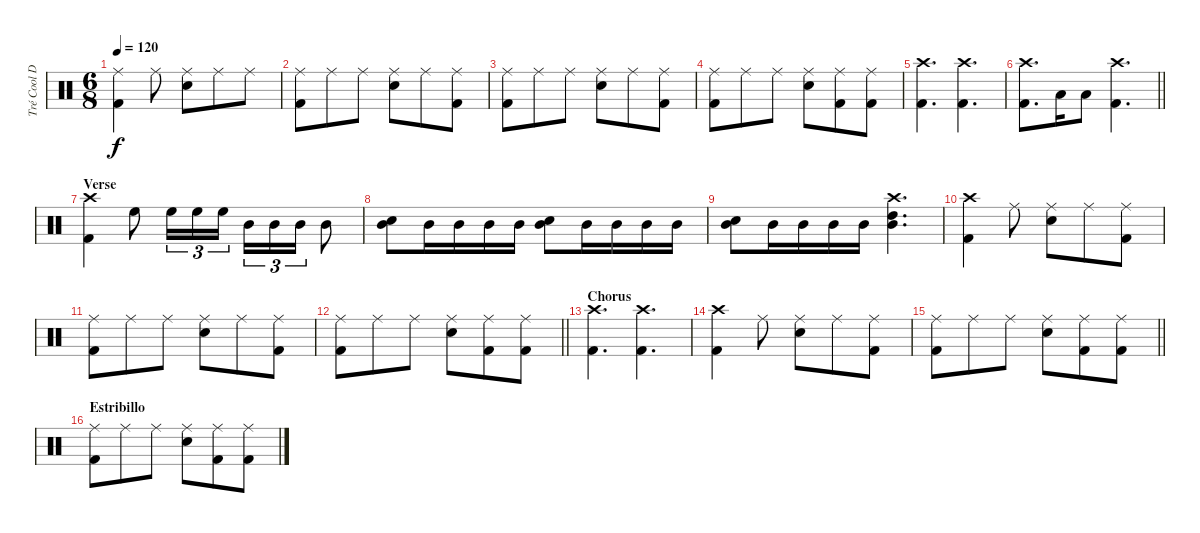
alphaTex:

\track ("Tré Cool Drums" "Tré Cool D") {instrument percussion}
\staff {score}
\articulation defaults
\ts (6 8)
\tempo 120
\clef neutral
\ks c
("Ride (middle)" "Kick (hit) 2").4{dy f} "Ride (middle)".8 ("Ride (middle)" "Snare (hit) 2").8 "Ride (middle)".8 "Ride (middle)".8 |
("Ride (middle)" "Kick (hit) 2").8 "Ride (middle)".8 "Ride (middle)".8 ("Ride (middle)" "Snare (hit) 2").8 "Ride (middle)".8 ("Ride (middle)" "Kick (hit) 2").8 |
("Ride (middle)" "Kick (hit) 2").8 "Ride (middle)".8 "Ride (middle)".8 ("Ride (middle)" "Snare (hit) 2").8 "Ride (middle)".8 ("Ride (middle)" "Kick (hit) 2").8 |
("Ride (middle)" "Kick (hit) 2").8 "Ride (middle)".8 "Ride (middle)".8 ("Ride (middle)" "Snare (hit) 2").8 ("Ride (middle)" "Kick (hit) 2").8 ("Ride (middle)" "Kick (hit) 2").8 |
("Crash high (hit)" "Kick (hit) 2").4{d} ("Crash high (hit)" "Kick (hit) 2").4{d} |
\barLineRight lightlight
("Crash high (hit)" "Kick (hit) 2").8{d} "Low Floor Tom (hit)".16 "Low Floor Tom (hit)".8 ("Crash high (hit)" "Kick (hit) 2").4{d} |
\section ("" "Verse")
("Crash high (hit)" "Kick (hit) 2").4 "High Floor Tom (hit)".8 "High Floor Tom (hit)".16{tu (3 2)} "High Floor Tom (hit)".16{tu (3 2)} "High Floor Tom (hit)".16{tu (3 2) beam splitsecondary} "Mid Tom (hit)".16{tu (3 2)} "Mid Tom (hit)".16{tu (3 2)} "Mid Tom (hit)".16{tu (3 2)} "Mid Tom (hit)".8 |
("Snare (hit) 2" "Mid Tom (hit)").8 "Mid Tom (hit)".16 "Mid Tom (hit)".16 "Mid Tom (hit)".16 "Mid Tom (hit)".16 ("Snare (hit) 2" "Mid Tom (hit)").8 "Mid Tom (hit)".16 "Mid Tom (hit)".16 "Mid Tom (hit)".16 "Mid Tom (hit)".16 |
("Snare (hit) 2" "Mid Tom (hit)").8 "Mid Tom (hit)".16 "Mid Tom (hit)".16 "Mid Tom (hit)".16 "Mid Tom (hit)".16 ("Crash high (hit)" "High Tom (hit)" "Mid Tom (hit)").4{d} |
("Crash high (hit)" "Kick (hit) 2").4 "Ride (middle)".8 ("Ride (middle)" "Snare (hit) 2").8 "Ride (middle)".8 ("Ride (middle)" "Kick (hit) 2").8 |
("Ride (middle)" "Kick (hit) 2").8 "Ride (middle)".8 "Ride (middle)".8 ("Ride (middle)" "Snare (hit) 2").8 "Ride (middle)".8 ("Ride (middle)" "Kick (hit) 2").8 |
\barLineRight lightlight
("Ride (middle)" "Kick (hit) 2").8 "Ride (middle)".8 "Ride (middle)".8 ("Ride (middle)" "Snare (hit) 2").8 ("Ride (middle)" "Kick (hit) 2").8 ("Ride (middle)" "Kick (hit) 2").8 |
\section ("" "Chorus")
("Crash high (hit)" "Kick (hit) 2").4{d} ("Crash high (hit)" "Kick (hit) 2").4{d} |
("Crash high (hit)" "Kick (hit) 2").4 "Ride (middle)".8 ("Ride (middle)" "Snare (hit) 2").8 "Ride (middle)".8 ("Ride (middle)" "Kick (hit) 2").8 |
\barLineRight lightlight
("Ride (middle)" "Kick (hit) 2").8 "Ride (middle)".8 "Ride (middle)".8 ("Ride (middle)" "Snare (hit) 2").8 ("Ride (middle)" "Kick (hit) 2").8 ("Ride (middle)" "Kick (hit) 2").8 |
\section ("" "Estribillo")
("Ride (middle)" "Kick (hit) 2").8 "Ride (middle)".8 "Ride (middle)".8 ("Ride (middle)" "Snare (hit) 2").8 ("Ride (middle)" "Kick (hit) 2").8 ("Ride (middle)" "Kick (hit) 2").8
